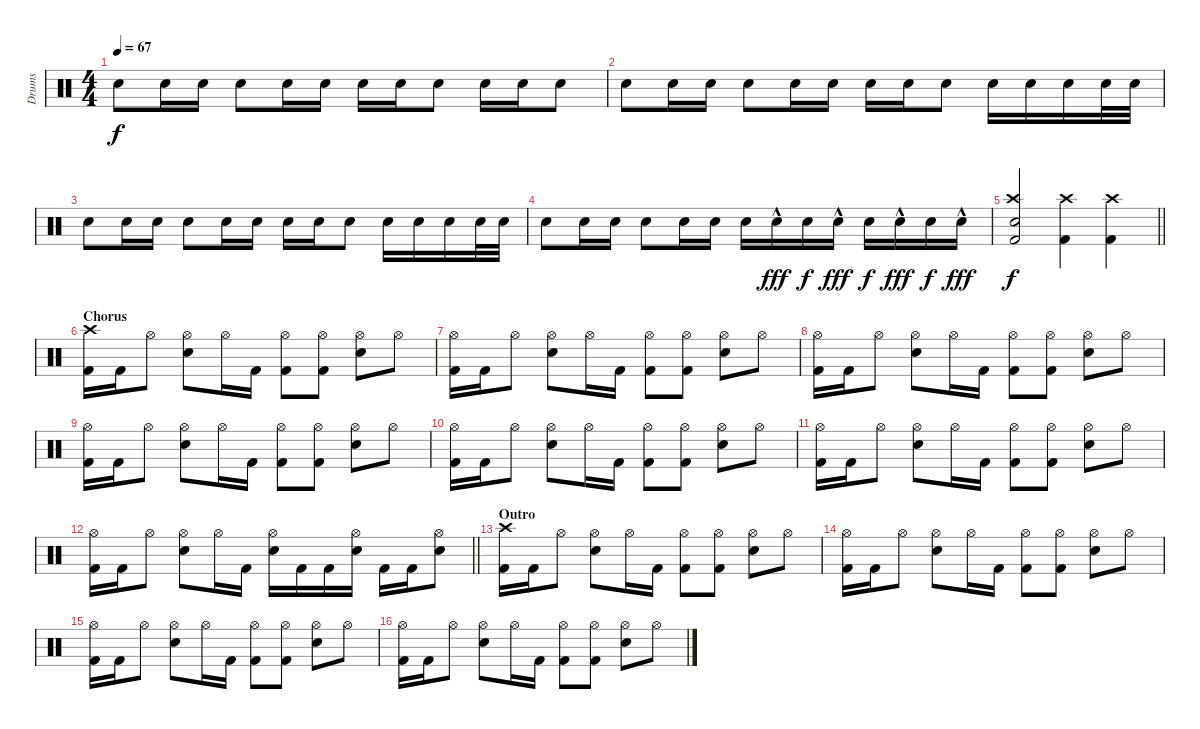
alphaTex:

\track ("Drums" "Drums") {instrument percussion}
\staff {score}
\articulation defaults
\ts (4 4)
\tempo 67
\clef neutral
\ks c "Snare (hit) 2".8{dy f} "Snare (hit) 2".16 "Snare (hit) 2".16 "Snare (hit) 2".8 "Snare (hit) 2".16 "Snare (hit) 2".16 "Snare (hit) 2".16 "Snare (hit) 2".16 "Snare (hit) 2".8 "Snare (hit) 2".16 "Snare (hit) 2".16 "Snare (hit) 2".8
|
"Snare (hit) 2".8 "Snare (hit) 2".16 "Snare (hit) 2".16 "Snare (hit) 2".8 "Snare (hit) 2".16 "Snare (hit) 2".16 "Snare (hit) 2".16 "Snare (hit) 2".16 "Snare (hit) 2".8 "Snare (hit) 2".16 "Snare (hit) 2".16 "Snare (hit) 2".16 "Snare (hit) 2".32 "Snare (hit) 2".32 |
"Snare (hit) 2".8 "Snare (hit) 2".16 "Snare (hit) 2".16 "Snare (hit) 2".8 "Snare (hit) 2".16 "Snare (hit) 2".16 "Snare (hit) 2".16 "Snare (hit) 2".16 "Snare (hit) 2".8 "Snare (hit) 2".16 "Snare (hit) 2".16 "Snare (hit) 2".16 "Snare (hit) 2".32 "Snare (hit) 2".32 |
"Snare (hit) 2".8 "Snare (hit) 2".16 "Snare (hit) 2".16 "Snare (hit) 2".8 "Snare (hit) 2".16 "Snare (hit) 2".16 "Snare (hit) 2".16 "Snare (hit) 2"{hac}.16{dy fff} "Snare (hit) 2".16{dy f} "Snare (hit) 2"{hac}.16{dy fff} "Snare (hit) 2".16{dy f} "Snare (hit) 2"{hac}.16{dy fff} "Snare (hit) 2".16{dy f} "Snare (hit) 2"{hac}.16{dy fff} |
\barLineRight lightlight
("Crash high (hit)" "Snare (hit) 2" "Kick (hit) 2").2{dy f} ("Crash high (hit)" "Kick (hit) 2").4 ("Crash high (hit)" "Kick (hit) 2").4 |
\section ("" "Chorus")
("Crash high (hit)" "Kick (hit) 2").16 "Kick (hit) 2".16 "Hi-Hat (open)".8 ("Hi-Hat (open)" "Snare (hit) 2").8 "Hi-Hat (open)".16 "Kick (hit) 2".16 ("Hi-Hat (open)" "Kick (hit) 2").8 ("Kick (hit) 2" "Hi-Hat (open)").8 ("Hi-Hat (open)" "Snare (hit) 2").8 "Hi-Hat (open)".8 |
("Hi-Hat (open)" "Kick (hit) 2").16 "Kick (hit) 2".16 "Hi-Hat (open)".8 ("Hi-Hat (open)" "Snare (hit) 2").8 "Hi-Hat (open)".16 "Kick (hit) 2".16 ("Hi-Hat (open)" "Kick (hit) 2").8 ("Kick (hit) 2" "Hi-Hat (open)").8 ("Hi-Hat (open)" "Snare (hit) 2").8 "Hi-Hat (open)".8 |
("Hi-Hat (open)" "Kick (hit) 2").16 "Kick (hit) 2".16 "Hi-Hat (open)".8 ("Hi-Hat (open)" "Snare (hit) 2").8 "Hi-Hat (open)".16 "Kick (hit) 2".16 ("Hi-Hat (open)" "Kick (hit) 2").8 ("Kick (hit) 2" "Hi-Hat (open)").8 ("Hi-Hat (open)" "Snare (hit) 2").8 "Hi-Hat (open)".8 |
("Hi-Hat (open)" "Kick (hit) 2").16 "Kick (hit) 2".16 "Hi-Hat (open)".8 ("Hi-Hat (open)" "Snare (hit) 2").8 "Hi-Hat (open)".16 "Kick (hit) 2".16 ("Hi-Hat (open)" "Kick (hit) 2").8 ("Kick (hit) 2" "Hi-Hat (open)").8 ("Hi-Hat (open)" "Snare (hit) 2").8 "Hi-Hat (open)".8 |
("Hi-Hat (open)" "Kick (hit) 2").16 "Kick (hit) 2".16 "Hi-Hat (open)".8 ("Hi-Hat (open)" "Snare (hit) 2").8 "Hi-Hat (open)".16 "Kick (hit) 2".16 ("Hi-Hat (open)" "Kick (hit) 2").8 ("Kick (hit) 2" "Hi-Hat (open)").8 ("Hi-Hat (open)" "Snare (hit) 2").8 "Hi-Hat (open)".8 |
("Hi-Hat (open)" "Kick (hit) 2").16 "Kick (hit) 2".16 "Hi-Hat (open)".8 ("Hi-Hat (open)" "Snare (hit) 2").8 "Hi-Hat (open)".16 "Kick (hit) 2".16 ("Hi-Hat (open)" "Kick (hit) 2").8 ("Kick (hit) 2" "Hi-Hat (open)").8 ("Hi-Hat (open)" "Snare (hit) 2").8 "Hi-Hat (open)".8 |
\barLineRight lightlight
("Hi-Hat (open)" "Kick (hit) 2").16 "Kick (hit) 2".16 "Hi-Hat (open)".8 ("Hi-Hat (open)" "Snare (hit) 2").8 "Hi-Hat (open)".16 "Kick (hit) 2".16 ("Snare (hit) 2" "Hi-Hat (open)").16 "Kick (hit) 2".16 "Kick (hit) 2".16 ("Snare (hit) 2" "Hi-Hat (open)").16 "Kick (hit) 2".16 "Kick (hit) 2".16 ("Snare (hit) 2" "Hi-Hat (open)").8 |
\section ("" "Outro")
("Crash high (hit)" "Kick (hit) 2").16 "Kick (hit) 2".16 "Hi-Hat (open)".8 ("Hi-Hat (open)" "Snare (hit) 2").8 "Hi-Hat (open)".16 "Kick (hit) 2".16 ("Hi-Hat (open)" "Kick (hit) 2").8 ("Kick (hit) 2" "Hi-Hat (open)").8 ("Hi-Hat (open)" "Snare (hit) 2").8 "Hi-Hat (open)".8 |
("Hi-Hat (open)" "Kick (hit) 2").16 "Kick (hit) 2".16 "Hi-Hat (open)".8 ("Hi-Hat (open)" "Snare (hit) 2").8 "Hi-Hat (open)".16 "Kick (hit) 2".16 ("Hi-Hat (open)" "Kick (hit) 2").8 ("Kick (hit) 2" "Hi-Hat (open)").8 ("Hi-Hat (open)" "Snare (hit) 2").8 "Hi-Hat (open)".8 |
("Hi-Hat (open)" "Kick (hit) 2").16 "Kick (hit) 2".16 "Hi-Hat (open)".8 ("Hi-Hat (open)" "Snare (hit) 2").8 "Hi-Hat (open)".16 "Kick (hit) 2".16 ("Hi-Hat (open)" "Kick (hit) 2").8 ("Kick (hit) 2" "Hi-Hat (open)").8 ("Hi-Hat (open)" "Snare (hit) 2").8 "Hi-Hat (open)".8 |
("Hi-Hat (open)" "Kick (hit) 2").16 "Kick (hit) 2".16 "Hi-Hat (open)".8 ("Hi-Hat (open)" "Snare (hit) 2").8 "Hi-Hat (open)".16 "Kick (hit) 2".16 ("Hi-Hat (open)" "Kick (hit) 2").8 ("Kick (hit) 2" "Hi-Hat (open)").8 ("Hi-Hat (open)" "Snare (hit) 2").8 "Hi-Hat (open)".8
